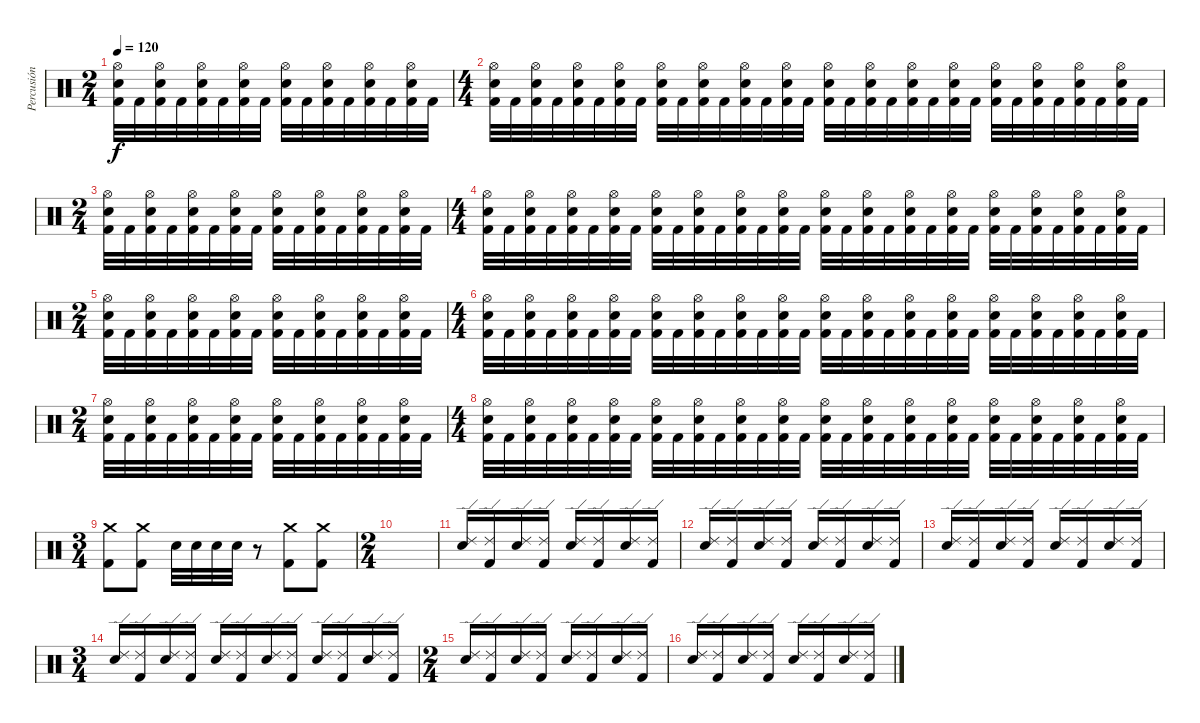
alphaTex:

\track ("Percusión" "Percusión") {instrument percussion}
\staff {score}
\articulation defaults
\ts (2 4)
\tempo 120
\clef neutral
\ks c
("Kick (hit) 2" "Snare (hit) 2" "Hi-Hat (open)").32{dy f} "Kick (hit) 2".32 ("Kick (hit) 2" "Snare (hit) 2" "Hi-Hat (open)").32 "Kick (hit) 2".32 ("Kick (hit) 2" "Snare (hit) 2" "Hi-Hat (open)").32 "Kick (hit) 2".32 ("Kick (hit) 2" "Snare (hit) 2" "Hi-Hat (open)").32 "Kick (hit) 2".32 ("Kick (hit) 2" "Snare (hit) 2" "Hi-Hat (open)").32 "Kick (hit) 2".32 ("Kick (hit) 2" "Snare (hit) 2" "Hi-Hat (open)").32 "Kick (hit) 2".32 ("Kick (hit) 2" "Snare (hit) 2" "Hi-Hat (open)").32 "Kick (hit) 2".32 ("Kick (hit) 2" "Snare (hit) 2" "Hi-Hat (open)").32 "Kick (hit) 2".32 |
\ts (4 4)
("Kick (hit) 2" "Snare (hit) 2" "Hi-Hat (open)").32 "Kick (hit) 2".32 ("Kick (hit) 2" "Snare (hit) 2" "Hi-Hat (open)").32 "Kick (hit) 2".32 ("Kick (hit) 2" "Snare (hit) 2" "Hi-Hat (open)").32 "Kick (hit) 2".32 ("Kick (hit) 2" "Snare (hit) 2" "Hi-Hat (open)").32 "Kick (hit) 2".32 ("Kick (hit) 2" "Snare (hit) 2" "Hi-Hat (open)").32 "Kick (hit) 2".32 ("Kick (hit) 2" "Snare (hit) 2" "Hi-Hat (open)").32 "Kick (hit) 2".32 ("Kick (hit) 2" "Snare (hit) 2" "Hi-Hat (open)").32 "Kick (hit) 2".32 ("Kick (hit) 2" "Snare (hit) 2" "Hi-Hat (open)").32 "Kick (hit) 2".32 ("Kick (hit) 2" "Snare (hit) 2" "Hi-Hat (open)").32 "Kick (hit) 2".32 ("Kick (hit) 2" "Snare (hit) 2" "Hi-Hat (open)").32 "Kick (hit) 2".32 ("Kick (hit) 2" "Snare (hit) 2" "Hi-Hat (open)").32 "Kick (hit) 2".32 ("Kick (hit) 2" "Snare (hit) 2" "Hi-Hat (open)").32 "Kick (hit) 2".32 ("Kick (hit) 2" "Snare (hit) 2" "Hi-Hat (open)").32 "Kick (hit) 2".32 ("Kick (hit) 2" "Snare (hit) 2" "Hi-Hat (open)").32 "Kick (hit) 2".32 ("Kick (hit) 2" "Snare (hit) 2" "Hi-Hat (open)").32 "Kick (hit) 2".32 ("Kick (hit) 2" "Snare (hit) 2" "Hi-Hat (open)").32 "Kick (hit) 2".32 |
\ts (2 4)
("Kick (hit) 2" "Snare (hit) 2" "Hi-Hat (open)").32 "Kick (hit) 2".32 ("Kick (hit) 2" "Snare (hit) 2" "Hi-Hat (open)").32 "Kick (hit) 2".32 ("Kick (hit) 2" "Snare (hit) 2" "Hi-Hat (open)").32 "Kick (hit) 2".32 ("Kick (hit) 2" "Snare (hit) 2" "Hi-Hat (open)").32 "Kick (hit) 2".32 ("Kick (hit) 2" "Snare (hit) 2" "Hi-Hat (open)").32 "Kick (hit) 2".32 ("Kick (hit) 2" "Snare (hit) 2" "Hi-Hat (open)").32 "Kick (hit) 2".32 ("Kick (hit) 2" "Snare (hit) 2" "Hi-Hat (open)").32 "Kick (hit) 2".32 ("Kick (hit) 2" "Snare (hit) 2" "Hi-Hat (open)").32 "Kick (hit) 2".32 |
\ts (4 4)
("Kick (hit) 2" "Snare (hit) 2" "Hi-Hat (open)").32 "Kick (hit) 2".32 ("Kick (hit) 2" "Snare (hit) 2" "Hi-Hat (open)").32 "Kick (hit) 2".32 ("Kick (hit) 2" "Snare (hit) 2" "Hi-Hat (open)").32 "Kick (hit) 2".32 ("Kick (hit) 2" "Snare (hit) 2" "Hi-Hat (open)").32 "Kick (hit) 2".32 ("Kick (hit) 2" "Snare (hit) 2" "Hi-Hat (open)").32 "Kick (hit) 2".32 ("Kick (hit) 2" "Snare (hit) 2" "Hi-Hat (open)").32 "Kick (hit) 2".32 ("Kick (hit) 2" "Snare (hit) 2" "Hi-Hat (open)").32 "Kick (hit) 2".32 ("Kick (hit) 2" "Snare (hit) 2" "Hi-Hat (open)").32 "Kick (hit) 2".32 ("Kick (hit) 2" "Snare (hit) 2" "Hi-Hat (open)").32 "Kick (hit) 2".32 ("Kick (hit) 2" "Snare (hit) 2" "Hi-Hat (open)").32 "Kick (hit) 2".32 ("Kick (hit) 2" "Snare (hit) 2" "Hi-Hat (open)").32 "Kick (hit) 2".32 ("Kick (hit) 2" "Snare (hit) 2" "Hi-Hat (open)").32 "Kick (hit) 2".32 ("Kick (hit) 2" "Snare (hit) 2" "Hi-Hat (open)").32 "Kick (hit) 2".32 ("Kick (hit) 2" "Snare (hit) 2" "Hi-Hat (open)").32 "Kick (hit) 2".32 ("Kick (hit) 2" "Snare (hit) 2" "Hi-Hat (open)").32 "Kick (hit) 2".32 ("Kick (hit) 2" "Snare (hit) 2" "Hi-Hat (open)").32 "Kick (hit) 2".32 |
\ts (2 4)
("Kick (hit) 2" "Snare (hit) 2" "Hi-Hat (open)").32 "Kick (hit) 2".32 ("Kick (hit) 2" "Snare (hit) 2" "Hi-Hat (open)").32 "Kick (hit) 2".32 ("Kick (hit) 2" "Snare (hit) 2" "Hi-Hat (open)").32 "Kick (hit) 2".32 ("Kick (hit) 2" "Snare (hit) 2" "Hi-Hat (open)").32 "Kick (hit) 2".32 ("Kick (hit) 2" "Snare (hit) 2" "Hi-Hat (open)").32 "Kick (hit) 2".32 ("Kick (hit) 2" "Snare (hit) 2" "Hi-Hat (open)").32 "Kick (hit) 2".32 ("Kick (hit) 2" "Snare (hit) 2" "Hi-Hat (open)").32 "Kick (hit) 2".32 ("Kick (hit) 2" "Snare (hit) 2" "Hi-Hat (open)").32 "Kick (hit) 2".32 |
\ts (4 4)
("Kick (hit) 2" "Snare (hit) 2" "Hi-Hat (open)").32 "Kick (hit) 2".32 ("Kick (hit) 2" "Snare (hit) 2" "Hi-Hat (open)").32 "Kick (hit) 2".32 ("Kick (hit) 2" "Snare (hit) 2" "Hi-Hat (open)").32 "Kick (hit) 2".32 ("Kick (hit) 2" "Snare (hit) 2" "Hi-Hat (open)").32 "Kick (hit) 2".32 ("Kick (hit) 2" "Snare (hit) 2" "Hi-Hat (open)").32 "Kick (hit) 2".32 ("Kick (hit) 2" "Snare (hit) 2" "Hi-Hat (open)").32 "Kick (hit) 2".32 ("Kick (hit) 2" "Snare (hit) 2" "Hi-Hat (open)").32 "Kick (hit) 2".32 ("Kick (hit) 2" "Snare (hit) 2" "Hi-Hat (open)").32 "Kick (hit) 2".32 ("Kick (hit) 2" "Snare (hit) 2" "Hi-Hat (open)").32 "Kick (hit) 2".32 ("Kick (hit) 2" "Snare (hit) 2" "Hi-Hat (open)").32 "Kick (hit) 2".32 ("Kick (hit) 2" "Snare (hit) 2" "Hi-Hat (open)").32 "Kick (hit) 2".32 ("Kick (hit) 2" "Snare (hit) 2" "Hi-Hat (open)").32 "Kick (hit) 2".32 ("Kick (hit) 2" "Snare (hit) 2" "Hi-Hat (open)").32 "Kick (hit) 2".32 ("Kick (hit) 2" "Snare (hit) 2" "Hi-Hat (open)").32 "Kick (hit) 2".32 ("Kick (hit) 2" "Snare (hit) 2" "Hi-Hat (open)").32 "Kick (hit) 2".32 ("Kick (hit) 2" "Snare (hit) 2" "Hi-Hat (open)").32 "Kick (hit) 2".32 |
\ts (2 4)
("Kick (hit) 2" "Snare (hit) 2" "Hi-Hat (open)").32 "Kick (hit) 2".32 ("Kick (hit) 2" "Snare (hit) 2" "Hi-Hat (open)").32 "Kick (hit) 2".32 ("Kick (hit) 2" "Snare (hit) 2" "Hi-Hat (open)").32 "Kick (hit) 2".32 ("Kick (hit) 2" "Snare (hit) 2" "Hi-Hat (open)").32 "Kick (hit) 2".32 ("Kick (hit) 2" "Snare (hit) 2" "Hi-Hat (open)").32 "Kick (hit) 2".32 ("Kick (hit) 2" "Snare (hit) 2" "Hi-Hat (open)").32 "Kick (hit) 2".32 ("Kick (hit) 2" "Snare (hit) 2" "Hi-Hat (open)").32 "Kick (hit) 2".32 ("Kick (hit) 2" "Snare (hit) 2" "Hi-Hat (open)").32 "Kick (hit) 2".32 |
\ts (4 4)
("Kick (hit) 2" "Snare (hit) 2" "Hi-Hat (open)").32 "Kick (hit) 2".32 ("Kick (hit) 2" "Snare (hit) 2" "Hi-Hat (open)").32 "Kick (hit) 2".32 ("Kick (hit) 2" "Snare (hit) 2" "Hi-Hat (open)").32 "Kick (hit) 2".32 ("Kick (hit) 2" "Snare (hit) 2" "Hi-Hat (open)").32 "Kick (hit) 2".32 ("Kick (hit) 2" "Snare (hit) 2" "Hi-Hat (open)").32 "Kick (hit) 2".32 ("Kick (hit) 2" "Snare (hit) 2" "Hi-Hat (open)").32 "Kick (hit) 2".32 ("Kick (hit) 2" "Snare (hit) 2" "Hi-Hat (open)").32 "Kick (hit) 2".32 ("Kick (hit) 2" "Snare (hit) 2" "Hi-Hat (open)").32 "Kick (hit) 2".32 ("Kick (hit) 2" "Snare (hit) 2" "Hi-Hat (open)").32 "Kick (hit) 2".32 ("Kick (hit) 2" "Snare (hit) 2" "Hi-Hat (open)").32 "Kick (hit) 2".32 ("Kick (hit) 2" "Snare (hit) 2" "Hi-Hat (open)").32 "Kick (hit) 2".32 ("Kick (hit) 2" "Snare (hit) 2" "Hi-Hat (open)").32 "Kick (hit) 2".32 ("Kick (hit) 2" "Snare (hit) 2" "Hi-Hat (open)").32 "Kick (hit) 2".32 ("Kick (hit) 2" "Snare (hit) 2" "Hi-Hat (open)").32 "Kick (hit) 2".32 ("Kick (hit) 2" "Snare (hit) 2" "Hi-Hat (open)").32 "Kick (hit) 2".32 ("Kick (hit) 2" "Snare (hit) 2" "Hi-Hat (open)").32 "Kick (hit) 2".32 |
\ts (3 4)
("Kick (hit) 2" "Crash medium (hit)").8 ("Kick (hit) 2" "Crash medium (hit)").8 "Snare (hit) 2".32 "Snare (hit) 2".32 "Snare (hit) 2".32 "Snare (hit) 2".32 r.8 ("Kick (hit) 2" "Crash medium (hit)").8 ("Kick (hit) 2" "Crash medium (hit)").8 |
\ts (2 4)
|
("Ride (edge) 2" "Snare (hit) 2").16 ("Ride (edge) 2" "Kick (hit) 2").16 ("Ride (edge) 2" "Snare (hit) 2").16 ("Ride (edge) 2" "Kick (hit) 2").16 ("Ride (edge) 2" "Snare (hit) 2").16 ("Ride (edge) 2" "Kick (hit) 2").16 ("Ride (edge) 2" "Snare (hit) 2").16 ("Ride (edge) 2" "Kick (hit) 2").16 |
("Ride (edge) 2" "Snare (hit) 2").16 ("Ride (edge) 2" "Kick (hit) 2").16 ("Ride (edge) 2" "Snare (hit) 2").16 ("Ride (edge) 2" "Kick (hit) 2").16 ("Ride (edge) 2" "Snare (hit) 2").16 ("Ride (edge) 2" "Kick (hit) 2").16 ("Ride (edge) 2" "Snare (hit) 2").16 ("Ride (edge) 2" "Kick (hit) 2").16 |
("Ride (edge) 2" "Snare (hit) 2").16 ("Ride (edge) 2" "Kick (hit) 2").16 ("Ride (edge) 2" "Snare (hit) 2").16 ("Ride (edge) 2" "Kick (hit) 2").16 ("Ride (edge) 2" "Snare (hit) 2").16 ("Ride (edge) 2" "Kick (hit) 2").16 ("Ride (edge) 2" "Snare (hit) 2").16 ("Ride (edge) 2" "Kick (hit) 2").16 |
\ts (3 4)
("Snare (hit) 2" "Ride (edge) 2").16 ("Kick (hit) 2" "Ride (edge) 2").16 ("Snare (hit) 2" "Ride (edge) 2").16 ("Kick (hit) 2" "Ride (edge) 2").16 ("Snare (hit) 2" "Ride (edge) 2").16 ("Kick (hit) 2" "Ride (edge) 2").16 ("Snare (hit) 2" "Ride (edge) 2").16 ("Kick (hit) 2" "Ride (edge) 2").16 ("Snare (hit) 2" "Ride (edge) 2").16 ("Kick (hit) 2" "Ride (edge) 2").16 ("Snare (hit) 2" "Ride (edge) 2").16 ("Kick (hit) 2" "Ride (edge) 2").16 |
\ts (2 4)
("Ride (edge) 2" "Snare (hit) 2").16 ("Ride (edge) 2" "Kick (hit) 2").16 ("Ride (edge) 2" "Snare (hit) 2").16 ("Ride (edge) 2" "Kick (hit) 2").16 ("Ride (edge) 2" "Snare (hit) 2").16 ("Ride (edge) 2" "Kick (hit) 2").16 ("Ride (edge) 2" "Snare (hit) 2").16 ("Ride (edge) 2" "Kick (hit) 2").16 |
("Ride (edge) 2" "Snare (hit) 2").16 ("Ride (edge) 2" "Kick (hit) 2").16 ("Ride (edge) 2" "Snare (hit) 2").16 ("Ride (edge) 2" "Kick (hit) 2").16 ("Ride (edge) 2" "Snare (hit) 2").16 ("Ride (edge) 2" "Kick (hit) 2").16 ("Ride (edge) 2" "Snare (hit) 2").16 ("Ride (edge) 2" "Kick (hit) 2").16
